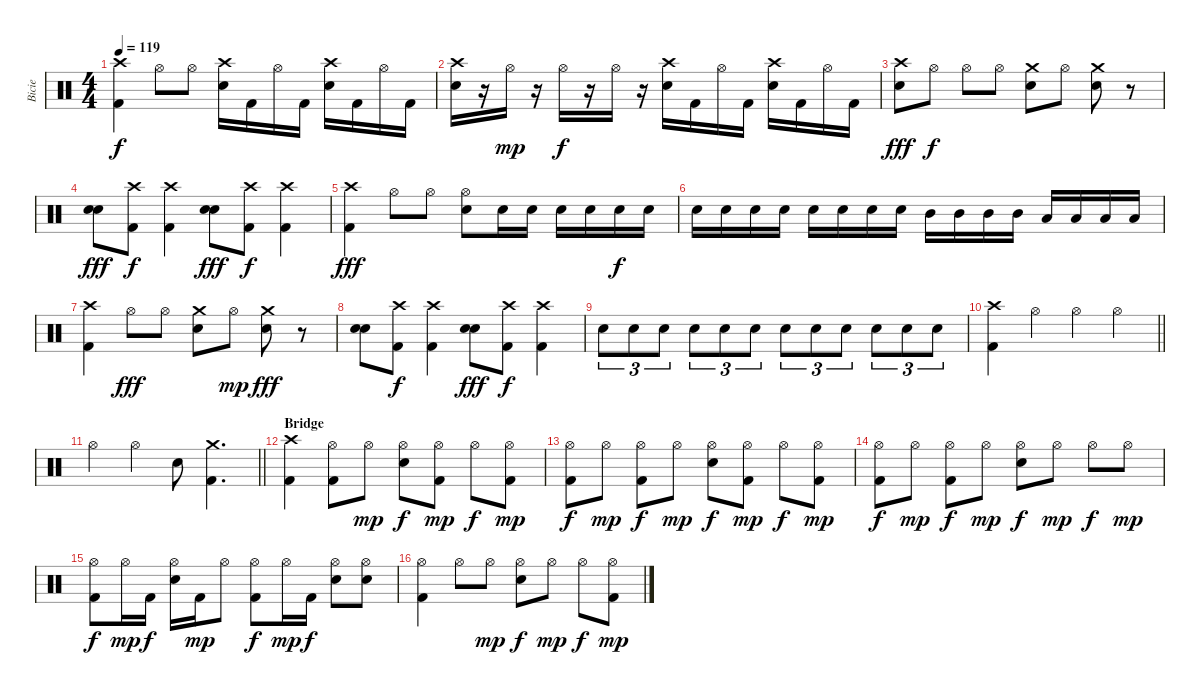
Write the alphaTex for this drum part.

\track ("Bicie" "Bicie") {instrument percussion}
\staff {score}
\articulation defaults
\ts (4 4)
\tempo 119
\clef neutral
\ks c
("Crash high (hit)" "Kick (hit) 2").4{dy f} "Hi-Hat (open)".8 "Hi-Hat (open)".8 ("Crash high (hit)" "Snare (hit) 2").16 "Kick (hit) 2".16 "Hi-Hat (open)".16 "Kick (hit) 2".16 ("Crash high (hit)" "Snare (hit) 2").16 "Kick (hit) 2".16 "Hi-Hat (open)".16 "Kick (hit) 2".16 |
("Crash high (hit)" "Snare (hit) 2").16 r.16 "Hi-Hat (open)".16{dy mp} r.16 "Hi-Hat (open)".16{dy f} r.16 "Hi-Hat (open)".16 r.16 ("Crash high (hit)" "Snare (hit) 2").16 "Kick (hit) 2".16 "Hi-Hat (open)".16 "Kick (hit) 2".16 ("Crash high (hit)" "Snare (hit) 2").16 "Kick (hit) 2".16 "Hi-Hat (open)".16 "Kick (hit) 2".16 |
("Crash high (hit)" "Snare (hit) 2").8{dy fff} "Hi-Hat (open)".8{dy f} "Hi-Hat (open)".8 "Hi-Hat (open)".8 ("Crash medium (hit)" "Snare (hit) 2").8 "Hi-Hat (open)".8 ("Crash medium (hit)" "Snare (hit) 2").8 r.8 |
("Snare (hit) 2" "Snare (hit) 2").8{dy fff} ("Crash high (hit)" "Kick (hit) 2").8{dy f} ("Crash high (hit)" "Kick (hit) 2").4 ("Snare (hit) 2" "Snare (hit) 2").8{dy fff} ("Crash high (hit)" "Kick (hit) 2").8{dy f} ("Crash high (hit)" "Kick (hit) 2").4 |
("Crash high (hit)" "Kick (hit) 2").4{dy fff} "Hi-Hat (open)".8 "Hi-Hat (open)".8 ("Hi-Hat (open)" "Snare (hit) 2").8 "Snare (hit) 2".16 "Snare (hit) 2".16 "Snare (hit) 2".16 "Snare (hit) 2".16 "Snare (hit) 2".16{dy f} "Snare (hit) 2".16 |
"Snare (hit) 2".16 "Snare (hit) 2".16 "Snare (hit) 2".16 "Snare (hit) 2".16 "Snare (hit) 2".16 "Snare (hit) 2".16 "Snare (hit) 2".16 "Snare (hit) 2".16 "Mid Tom (hit)".16 "Mid Tom (hit)".16 "Mid Tom (hit)".16 "Mid Tom (hit)".16 "Low Tom (hit)".16 "Low Tom (hit)".16 "Low Tom (hit)".16 "Low Tom (hit)".16 |
("Crash high (hit)" "Kick (hit) 2").4 "Hi-Hat (open)".8{dy fff} "Hi-Hat (open)".8 ("Crash medium (hit)" "Snare (hit) 2").8 "Hi-Hat (open)".8{dy mp} ("Crash medium (hit)" "Snare (hit) 2").8{dy fff} r.8 |
("Snare (hit) 2" "Snare (hit) 2").8 ("Crash high (hit)" "Kick (hit) 2").8{dy f} ("Crash high (hit)" "Kick (hit) 2").4 ("Snare (hit) 2" "Snare (hit) 2").8{dy fff} ("Crash high (hit)" "Kick (hit) 2").8{dy f} ("Crash high (hit)" "Kick (hit) 2").4 |
"Snare (hit) 2".8{tu (3 2)} "Snare (hit) 2".8{tu (3 2)} "Snare (hit) 2".8{tu (3 2)} "Snare (hit) 2".8{tu (3 2)} "Snare (hit) 2".8{tu (3 2)} "Snare (hit) 2".8{tu (3 2)} "Snare (hit) 2".8{tu (3 2)} "Snare (hit) 2".8{tu (3 2)} "Snare (hit) 2".8{tu (3 2)} "Snare (hit) 2".8{tu (3 2)} "Snare (hit) 2".8{tu (3 2)} "Snare (hit) 2".8{tu (3 2)} |
\barLineRight lightlight
("Crash high (hit)" "Kick (hit) 2").4 "Hi-Hat (open)".4 "Hi-Hat (open)".4 "Hi-Hat (open)".4 |
\barLineRight lightlight "Hi-Hat (open)".4 "Hi-Hat (open)".4 "Snare (hit) 2".8
("Crash medium (hit)" "Kick (hit) 2").4{d} |
\section ("" "Bridge")
("Crash high (hit)" "Kick (hit) 2").4 ("Hi-Hat (open)" "Kick (hit) 2").8 "Hi-Hat (open)".8{dy mp} ("Hi-Hat (open)" "Snare (hit) 2").8{dy f} ("Hi-Hat (open)" "Kick (hit) 2").8{dy mp} "Hi-Hat (open)".8{dy f} ("Hi-Hat (open)" "Kick (hit) 2").8{dy mp} |
("Hi-Hat (open)" "Kick (hit) 2").8{dy f} "Hi-Hat (open)".8{dy mp} ("Hi-Hat (open)" "Kick (hit) 2").8{dy f} "Hi-Hat (open)".8{dy mp} ("Hi-Hat (open)" "Snare (hit) 2").8{dy f} ("Hi-Hat (open)" "Kick (hit) 2").8{dy mp} "Hi-Hat (open)".8{dy f} ("Hi-Hat (open)" "Kick (hit) 2").8{dy mp} |
("Hi-Hat (open)" "Kick (hit) 2").8{dy f} "Hi-Hat (open)".8{dy mp} ("Hi-Hat (open)" "Kick (hit) 2").8{dy f} "Hi-Hat (open)".8{dy mp} ("Hi-Hat (open)" "Snare (hit) 2").8{dy f} "Hi-Hat (open)".8{dy mp} "Hi-Hat (open)".8{dy f} "Hi-Hat (open)".8{dy mp} |
("Hi-Hat (open)" "Kick (hit) 2").8{dy f} "Hi-Hat (open)".16{dy mp} "Kick (hit) 2".16{dy f} ("Hi-Hat (open)" "Snare (hit) 2").16 "Kick (hit) 2".16{dy mp} "Hi-Hat (open)".8 ("Hi-Hat (open)" "Kick (hit) 2").8{dy f} "Hi-Hat (open)".16{dy mp} "Kick (hit) 2".16{dy f} ("Hi-Hat (open)" "Snare (hit) 2").8 ("Hi-Hat (open)" "Snare (hit) 2").8 |
("Hi-Hat (open)" "Kick (hit) 2").4 "Hi-Hat (open)".8 "Hi-Hat (open)".8{dy mp} ("Hi-Hat (open)" "Snare (hit) 2").8{dy f} "Hi-Hat (open)".8{dy mp} "Hi-Hat (open)".8{dy f} ("Hi-Hat (open)" "Kick (hit) 2").8{dy mp}
